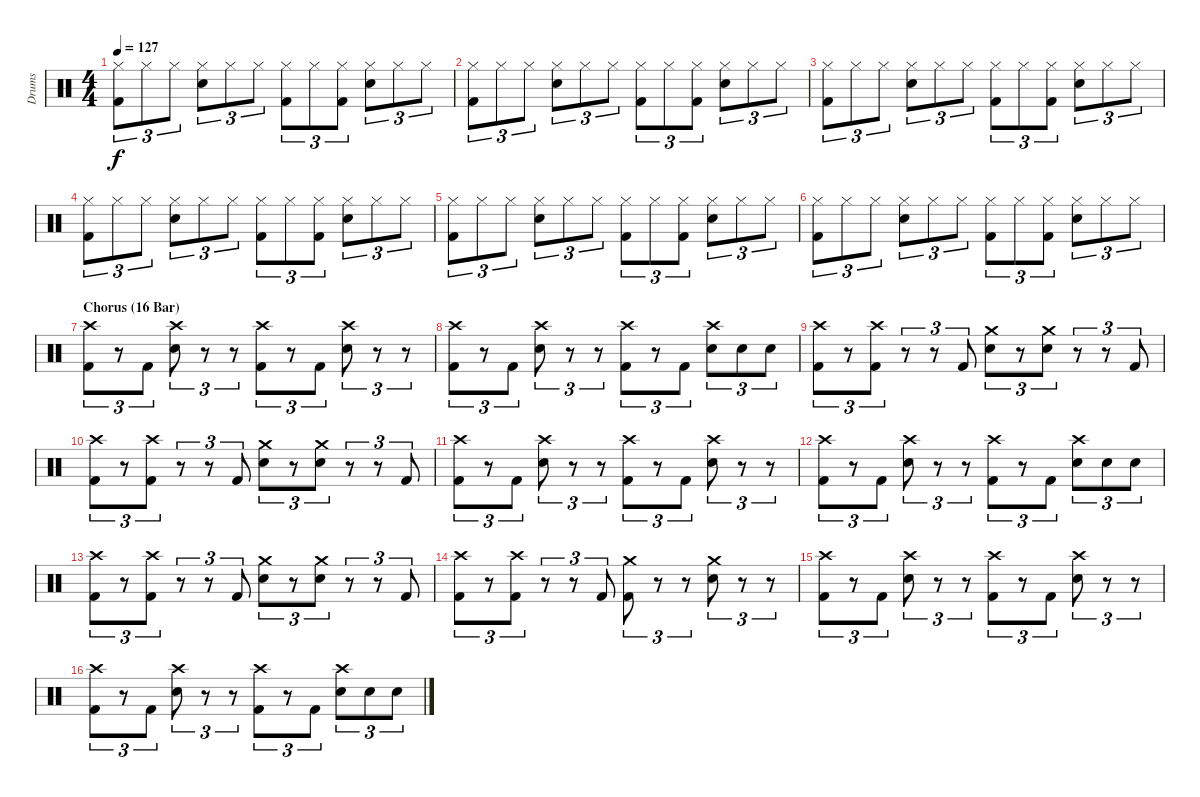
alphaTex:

\track ("Drums" "Drums") {instrument percussion}
\staff {score}
\articulation defaults
\ts (4 4)
\tempo 127
\clef neutral
\ks c
("Hi-Hat (closed)" "Kick (hit) 2").8{tu (3 2) dy f} "Hi-Hat (closed)".8{tu (3 2)} "Hi-Hat (closed)".8{tu (3 2)} ("Hi-Hat (closed)" "Electric Snare (hit)").8{tu (3 2)} "Hi-Hat (closed)".8{tu (3 2)} "Hi-Hat (closed)".8{tu (3 2)} ("Hi-Hat (closed)" "Kick (hit) 2").8{tu (3 2)} "Hi-Hat (closed)".8{tu (3 2)} ("Hi-Hat (closed)" "Kick (hit) 2").8{tu (3 2)} ("Hi-Hat (closed)" "Electric Snare (hit)").8{tu (3 2)} "Hi-Hat (closed)".8{tu (3 2)} "Hi-Hat (closed)".8{tu (3 2)} |
("Hi-Hat (closed)" "Kick (hit) 2").8{tu (3 2)} "Hi-Hat (closed)".8{tu (3 2)} "Hi-Hat (closed)".8{tu (3 2)} ("Hi-Hat (closed)" "Electric Snare (hit)").8{tu (3 2)} "Hi-Hat (closed)".8{tu (3 2)} "Hi-Hat (closed)".8{tu (3 2)} ("Hi-Hat (closed)" "Kick (hit) 2").8{tu (3 2)} "Hi-Hat (closed)".8{tu (3 2)} ("Hi-Hat (closed)" "Kick (hit) 2").8{tu (3 2)} ("Hi-Hat (closed)" "Electric Snare (hit)").8{tu (3 2)} "Hi-Hat (closed)".8{tu (3 2)} "Hi-Hat (closed)".8{tu (3 2)} |
("Hi-Hat (closed)" "Kick (hit) 2").8{tu (3 2)} "Hi-Hat (closed)".8{tu (3 2)} "Hi-Hat (closed)".8{tu (3 2)} ("Hi-Hat (closed)" "Electric Snare (hit)").8{tu (3 2)} "Hi-Hat (closed)".8{tu (3 2)} "Hi-Hat (closed)".8{tu (3 2)} ("Hi-Hat (closed)" "Kick (hit) 2").8{tu (3 2)} "Hi-Hat (closed)".8{tu (3 2)} ("Hi-Hat (closed)" "Kick (hit) 2").8{tu (3 2)} ("Hi-Hat (closed)" "Electric Snare (hit)").8{tu (3 2)} "Hi-Hat (closed)".8{tu (3 2)} "Hi-Hat (closed)".8{tu (3 2)} |
("Hi-Hat (closed)" "Kick (hit) 2").8{tu (3 2)} "Hi-Hat (closed)".8{tu (3 2)} "Hi-Hat (closed)".8{tu (3 2)} ("Hi-Hat (closed)" "Electric Snare (hit)").8{tu (3 2)} "Hi-Hat (closed)".8{tu (3 2)} "Hi-Hat (closed)".8{tu (3 2)} ("Hi-Hat (closed)" "Kick (hit) 2").8{tu (3 2)} "Hi-Hat (closed)".8{tu (3 2)} ("Hi-Hat (closed)" "Kick (hit) 2").8{tu (3 2)} ("Hi-Hat (closed)" "Electric Snare (hit)").8{tu (3 2)} "Hi-Hat (closed)".8{tu (3 2)} "Hi-Hat (closed)".8{tu (3 2)} |
("Hi-Hat (closed)" "Kick (hit) 2").8{tu (3 2)} "Hi-Hat (closed)".8{tu (3 2)} "Hi-Hat (closed)".8{tu (3 2)} ("Hi-Hat (closed)" "Electric Snare (hit)").8{tu (3 2)} "Hi-Hat (closed)".8{tu (3 2)} "Hi-Hat (closed)".8{tu (3 2)} ("Hi-Hat (closed)" "Kick (hit) 2").8{tu (3 2)} "Hi-Hat (closed)".8{tu (3 2)} ("Hi-Hat (closed)" "Kick (hit) 2").8{tu (3 2)} ("Hi-Hat (closed)" "Electric Snare (hit)").8{tu (3 2)} "Hi-Hat (closed)".8{tu (3 2)} "Hi-Hat (closed)".8{tu (3 2)} |
("Hi-Hat (closed)" "Kick (hit) 2").8{tu (3 2)} "Hi-Hat (closed)".8{tu (3 2)} "Hi-Hat (closed)".8{tu (3 2)} ("Hi-Hat (closed)" "Electric Snare (hit)").8{tu (3 2)} "Hi-Hat (closed)".8{tu (3 2)} "Hi-Hat (closed)".8{tu (3 2)} ("Hi-Hat (closed)" "Kick (hit) 2").8{tu (3 2)} "Hi-Hat (closed)".8{tu (3 2)} ("Hi-Hat (closed)" "Kick (hit) 2").8{tu (3 2)} ("Hi-Hat (closed)" "Electric Snare (hit)").8{tu (3 2)} "Hi-Hat (closed)".8{tu (3 2)} "Hi-Hat (closed)".8{tu (3 2)} |
\section ("" "Chorus (16 Bar)")
("Crash high (hit)" "Kick (hit) 2").8{tu (3 2) volume 13} r.8{tu (3 2)} "Kick (hit) 2".8{tu (3 2)} ("Crash high (hit)" "Electric Snare (hit)").8{tu (3 2)} r.8{tu (3 2)} r.8{tu (3 2)} ("Crash high (hit)" "Kick (hit) 2").8{tu (3 2)} r.8{tu (3 2)} "Kick (hit) 2".8{tu (3 2)} ("Crash high (hit)" "Electric Snare (hit)").8{tu (3 2)} r.8{tu (3 2)} r.8{tu (3 2)} |
("Crash high (hit)" "Kick (hit) 2").8{tu (3 2)} r.8{tu (3 2)} "Kick (hit) 2".8{tu (3 2)} ("Crash high (hit)" "Electric Snare (hit)").8{tu (3 2)} r.8{tu (3 2)} r.8{tu (3 2)} ("Crash high (hit)" "Kick (hit) 2").8{tu (3 2)} r.8{tu (3 2)} "Kick (hit) 2".8{tu (3 2)} ("Crash high (hit)" "Electric Snare (hit)").8{tu (3 2)} "Electric Snare (hit)".8{tu (3 2)} "Electric Snare (hit)".8{tu (3 2)} |
("Crash high (hit)" "Kick (hit) 2").8{tu (3 2)} r.8{tu (3 2)} ("Crash high (hit)" "Kick (hit) 2").8{tu (3 2)} r.8{tu (3 2)} r.8{tu (3 2)} "Kick (hit) 2".8{tu (3 2)} ("Crash medium (hit)" "Electric Snare (hit)").8{tu (3 2)} r.8{tu (3 2)} ("Crash medium (hit)" "Electric Snare (hit)").8{tu (3 2)} r.8{tu (3 2)} r.8{tu (3 2)} "Kick (hit) 2".8{tu (3 2)} |
("Crash high (hit)" "Kick (hit) 2").8{tu (3 2)} r.8{tu (3 2)} ("Crash high (hit)" "Kick (hit) 2").8{tu (3 2)} r.8{tu (3 2)} r.8{tu (3 2)} "Kick (hit) 2".8{tu (3 2)} ("Crash medium (hit)" "Electric Snare (hit)").8{tu (3 2)} r.8{tu (3 2)} ("Crash medium (hit)" "Electric Snare (hit)").8{tu (3 2)} r.8{tu (3 2)} r.8{tu (3 2)} "Kick (hit) 2".8{tu (3 2)} |
("Crash high (hit)" "Kick (hit) 2").8{tu (3 2)} r.8{tu (3 2)} "Kick (hit) 2".8{tu (3 2)} ("Crash high (hit)" "Electric Snare (hit)").8{tu (3 2)} r.8{tu (3 2)} r.8{tu (3 2)} ("Crash high (hit)" "Kick (hit) 2").8{tu (3 2)} r.8{tu (3 2)} "Kick (hit) 2".8{tu (3 2)} ("Crash high (hit)" "Electric Snare (hit)").8{tu (3 2)} r.8{tu (3 2)} r.8{tu (3 2)} |
("Crash high (hit)" "Kick (hit) 2").8{tu (3 2)} r.8{tu (3 2)} "Kick (hit) 2".8{tu (3 2)} ("Crash high (hit)" "Electric Snare (hit)").8{tu (3 2)} r.8{tu (3 2)} r.8{tu (3 2)} ("Crash high (hit)" "Kick (hit) 2").8{tu (3 2)} r.8{tu (3 2)} "Kick (hit) 2".8{tu (3 2)} ("Crash high (hit)" "Electric Snare (hit)").8{tu (3 2)} "Electric Snare (hit)".8{tu (3 2)} "Electric Snare (hit)".8{tu (3 2)} |
("Crash high (hit)" "Kick (hit) 2").8{tu (3 2)} r.8{tu (3 2)} ("Crash high (hit)" "Kick (hit) 2").8{tu (3 2)} r.8{tu (3 2)} r.8{tu (3 2)} "Kick (hit) 2".8{tu (3 2)} ("Crash medium (hit)" "Electric Snare (hit)").8{tu (3 2)} r.8{tu (3 2)} ("Crash medium (hit)" "Electric Snare (hit)").8{tu (3 2)} r.8{tu (3 2)} r.8{tu (3 2)} "Kick (hit) 2".8{tu (3 2)} |
("Crash high (hit)" "Kick (hit) 2").8{tu (3 2)} r.8{tu (3 2)} ("Crash high (hit)" "Kick (hit) 2").8{tu (3 2)} r.8{tu (3 2)} r.8{tu (3 2)} "Kick (hit) 2".8{tu (3 2)} ("Crash medium (hit)" "Kick (hit) 2").8{tu (3 2)} r.8{tu (3 2)} r.8{tu (3 2)} ("Crash medium (hit)" "Electric Snare (hit)").8{tu (3 2)} r.8{tu (3 2)} r.8{tu (3 2)} |
\section ("" "")
("Crash high (hit)" "Kick (hit) 2").8{tu (3 2)} r.8{tu (3 2)} "Kick (hit) 2".8{tu (3 2)} ("Crash high (hit)" "Electric Snare (hit)").8{tu (3 2)} r.8{tu (3 2)} r.8{tu (3 2)} ("Crash high (hit)" "Kick (hit) 2").8{tu (3 2)} r.8{tu (3 2)} "Kick (hit) 2".8{tu (3 2)} ("Crash high (hit)" "Electric Snare (hit)").8{tu (3 2)} r.8{tu (3 2)} r.8{tu (3 2)} |
("Crash high (hit)" "Kick (hit) 2").8{tu (3 2)} r.8{tu (3 2)} "Kick (hit) 2".8{tu (3 2)} ("Crash high (hit)" "Electric Snare (hit)").8{tu (3 2)} r.8{tu (3 2)} r.8{tu (3 2)} ("Crash high (hit)" "Kick (hit) 2").8{tu (3 2)} r.8{tu (3 2)} "Kick (hit) 2".8{tu (3 2)} ("Crash high (hit)" "Electric Snare (hit)").8{tu (3 2)} "Electric Snare (hit)".8{tu (3 2)} "Electric Snare (hit)".8{tu (3 2)}
